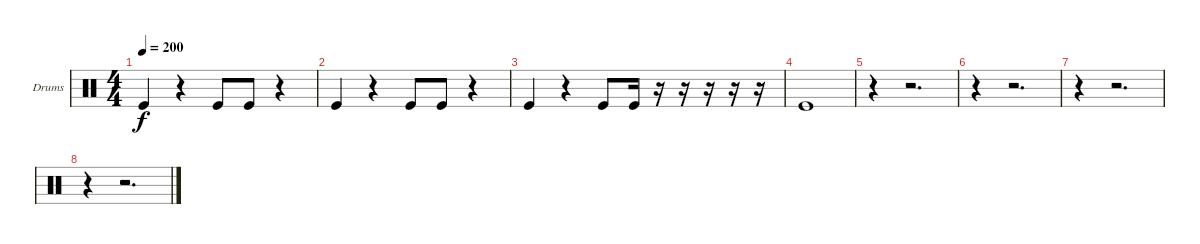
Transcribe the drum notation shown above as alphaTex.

\bracketExtendMode groupsimilarinstruments
\firstSystemTrackNameOrientation horizontal
\otherSystemsTrackNameOrientation horizontal
\track ("Drumkit" "Drums") {instrument percussion}
\staff {score}
\articulation defaults
\ts (4 4)
\tempo 200
\clef neutral
\ks c "Kick (hit)".4{dy f}
r.4 "Kick (hit)".8 "Kick (hit)".8 r.4 |
"Kick (hit)".4 r.4 "Kick (hit)".8 "Kick (hit)".8 r.4 |
"Kick (hit)".4 r.4 "Kick (hit)".8 "Kick (hit)".16 r.16 r.16 r.16 r.16 r.16 |
"Kick (hit)".1 |
r.4 r.2{d} |
r.4 r.2{d} |
r.4 r.2{d} |
r.4 r.2{d}
